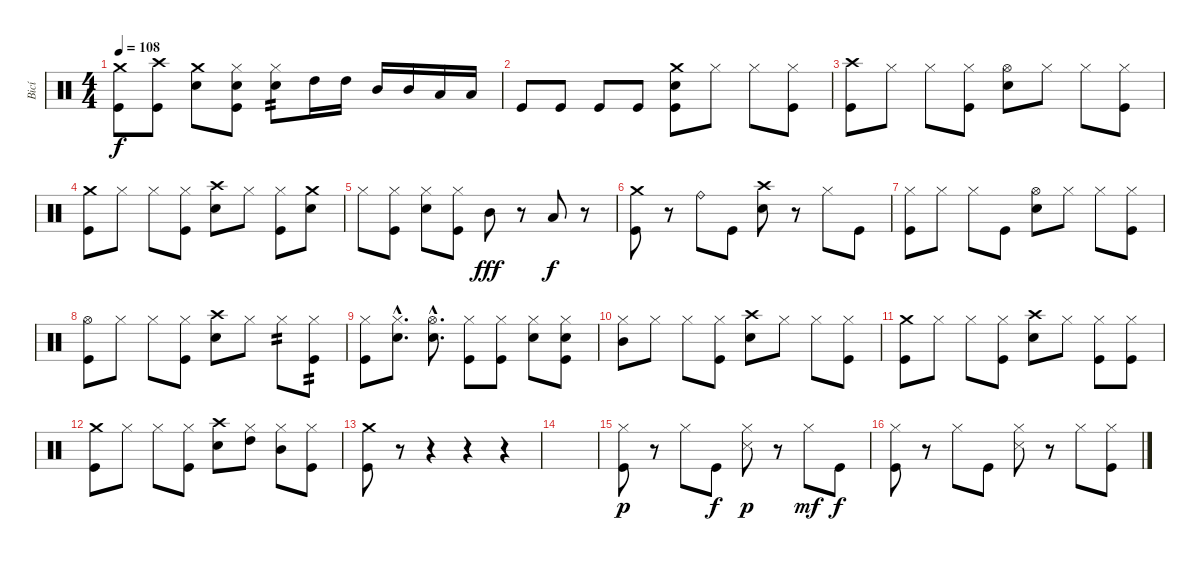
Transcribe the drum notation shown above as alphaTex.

\track ("Bicí" "Bicí") {instrument percussion}
\staff {score}
\articulation defaults
\ts (4 4)
\tempo 108
\clef neutral
\ks c
("Crash medium (hit)" "Kick (hit)").8{dy f} ("Crash high (hit)" "Kick (hit)").8 ("Crash medium (hit)" "Snare (hit) 2").8 ("Hi-Hat (closed)" "Snare (hit) 2" "Kick (hit)").8 ("Hi-Hat (closed)" "Snare (hit) 2").8{tp 2} "High Tom (hit)".16 "High Tom (hit)".16 "Mid Tom (hit)".16 "Mid Tom (hit)".16 "Low Tom (hit)".16 "Low Tom (hit)".16 |
"Kick (hit)".8 "Kick (hit)".8 "Kick (hit)".8 "Kick (hit)".8 ("Crash medium (hit)" "Snare (hit) 2" "Kick (hit)").8 "Hi-Hat (closed)".8 "Hi-Hat (closed)".8 ("Hi-Hat (closed)" "Kick (hit)").8 |
("Crash high (hit)" "Kick (hit)").8 "Hi-Hat (closed)".8 "Hi-Hat (closed)".8 ("Hi-Hat (closed)" "Kick (hit)").8 ("Hi-Hat (open)" "Snare (hit) 2").8 "Hi-Hat (closed)".8 "Hi-Hat (closed)".8 ("Hi-Hat (closed)" "Kick (hit)").8 |
("Crash medium (hit)" "Kick (hit)").8 "Hi-Hat (closed)".8 "Hi-Hat (closed)".8 ("Hi-Hat (closed)" "Kick (hit)").8 ("Crash high (hit)" "Snare (hit) 2").8 "Hi-Hat (closed)".8 ("Hi-Hat (closed)" "Kick (hit)").8 ("Crash medium (hit)" "Snare (hit) 2").8 |
"Hi-Hat (closed)".8 ("Hi-Hat (closed)" "Kick (hit)").8 ("Hi-Hat (closed)" "Snare (hit) 2").8 ("Hi-Hat (closed)" "Kick (hit)").8 "Mid Tom (hit)".8{dy fff} r.8 "Low Tom (hit)".8{dy f} r.8 |
("Crash medium (hit)" "Kick (hit)").8 r.8 "Ride (bell)".8 "Kick (hit)".8 ("Crash high (hit)" "Snare (hit) 2").8 r.8 "Hi-Hat (closed)".8 "Kick (hit)".8 |
("Hi-Hat (closed)" "Kick (hit)").8 "Hi-Hat (closed)".8 "Hi-Hat (closed)".8 "Kick (hit)".8 ("Hi-Hat (open)" "Snare (hit) 2").8 "Hi-Hat (closed)".8 "Hi-Hat (closed)".8 ("Hi-Hat (closed)" "Kick (hit)").8 |
("Hi-Hat (open)" "Kick (hit)").8 "Hi-Hat (closed)".8 "Hi-Hat (closed)".8 ("Hi-Hat (closed)" "Kick (hit)").8 ("Crash high (hit)" "Snare (hit) 2").8 "Hi-Hat (closed)".8 "Hi-Hat (closed)".8{tp 2} ("Hi-Hat (closed)" "Kick (hit)").8{tp 2} |
("Hi-Hat (closed)" "Kick (hit)").8 ("Hi-Hat (closed)"{hac} "Snare (hit) 2"{hac}).8{d} ("Hi-Hat (open)"{hac} "Snare (hit) 2"{hac}).8{d} ("Hi-Hat (closed)" "Kick (hit)").8 ("Hi-Hat (closed)" "Kick (hit)").8 ("Hi-Hat (closed)" "Snare (hit) 2").8 ("Hi-Hat (closed)" "Snare (hit) 2" "Kick (hit)").8 |
("Hi-Hat (closed)" "Mid Tom (hit)").8 "Hi-Hat (closed)".8 "Hi-Hat (closed)".8 ("Hi-Hat (closed)" "Kick (hit)").8 ("Crash high (hit)" "Snare (hit) 2").8 "Hi-Hat (closed)".8 "Hi-Hat (closed)".8 ("Hi-Hat (closed)" "Kick (hit)").8 |
("Crash medium (hit)" "Kick (hit)").8 "Hi-Hat (closed)".8 "Hi-Hat (closed)".8 ("Hi-Hat (closed)" "Kick (hit)").8 ("Crash high (hit)" "Snare (hit) 2").8 "Hi-Hat (closed)".8 ("Hi-Hat (closed)" "Kick (hit)").8 ("Hi-Hat (closed)" "Kick (hit)").8 |
("Crash medium (hit)" "Kick (hit)").8 "Hi-Hat (closed)".8 "Hi-Hat (closed)".8 ("Hi-Hat (closed)" "Kick (hit)").8 ("Crash high (hit)" "Snare (hit) 2").8 ("Hi-Hat (closed)" "High Tom (hit)").8 ("Hi-Hat (closed)" "Mid Tom (hit)").8 ("Hi-Hat (closed)" "Kick (hit)").8 |
("Crash medium (hit)" "Kick (hit)").8 r.8 r.4 r.4 r.4 |
|
("Hi-Hat (closed)" "Kick (hit)").8{dy p} r.8 "Hi-Hat (closed)".8 "Kick (hit)".8{dy f} ("Hi-Hat (closed)" "Snare (side stick) 3").8{dy p} r.8 "Hi-Hat (closed)".8{dy mf} "Kick (hit)".8{dy f} |
("Hi-Hat (closed)" "Kick (hit)").8 r.8 "Hi-Hat (closed)".8 "Kick (hit)".8 ("Hi-Hat (closed)" "Snare (side stick) 3").8 r.8 "Hi-Hat (closed)".8 ("Hi-Hat (closed)" "Kick (hit)").8
